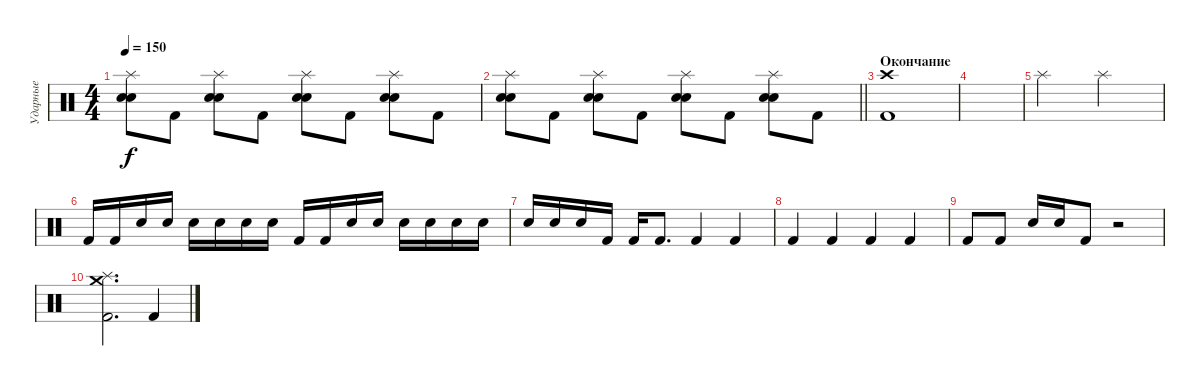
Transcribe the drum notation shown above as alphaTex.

\track ("Ударные" "Ударные") {instrument percussion}
\staff {score}
\articulation defaults
\ts (4 4)
\tempo 150
\clef neutral
\ks c
("Splash (hit)" "Electric Snare (hit)" "Snare (hit) 2").8{dy f} "Kick (hit) 2".8 ("Splash (hit)" "Electric Snare (hit)" "Snare (hit) 2").8 "Kick (hit) 2".8 ("Splash (hit)" "Electric Snare (hit)" "Snare (hit) 2").8 "Kick (hit) 2".8 ("Splash (hit)" "Electric Snare (hit)" "Snare (hit) 2").8 "Kick (hit) 2".8 |
\barLineRight lightlight
("Splash (hit)" "Electric Snare (hit)" "Snare (hit) 2").8 "Kick (hit) 2".8 ("Splash (hit)" "Electric Snare (hit)" "Snare (hit) 2").8 "Kick (hit) 2".8 ("Splash (hit)" "Electric Snare (hit)" "Snare (hit) 2").8 "Kick (hit) 2".8 ("Splash (hit)" "Electric Snare (hit)" "Snare (hit) 2").8 "Kick (hit) 2".8 |
\section ("" "Окончание")
("Crash high (hit)" "Kick (hit) 2").1 |
|
"Splash (hit)".2 "Splash (hit)".2 |
"Kick (hit) 2".16 "Kick (hit) 2".16 "Electric Snare (hit)".16 "Electric Snare (hit)".16 "Electric Snare (hit)".16 "Electric Snare (hit)".16 "Electric Snare (hit)".16 "Electric Snare (hit)".16 "Kick (hit) 2".16 "Kick (hit) 2".16 "Electric Snare (hit)".16 "Electric Snare (hit)".16 "Electric Snare (hit)".16 "Electric Snare (hit)".16 "Electric Snare (hit)".16 "Electric Snare (hit)".16 |
"Electric Snare (hit)".16 "Electric Snare (hit)".16 "Electric Snare (hit)".16 "Kick (hit) 2".16 "Kick (hit) 2".16 "Kick (hit) 2".8{d} "Kick (hit) 2".4 "Kick (hit) 2".4 |
"Kick (hit) 2".4 "Kick (hit) 2".4 "Kick (hit) 2".4 "Kick (hit) 2".4 |
"Kick (hit) 2".8 "Kick (hit) 2".8 "Electric Snare (hit)".16 "Electric Snare (hit)".16 "Kick (hit) 2".8 r.2 |
("Splash (hit)" "Crash medium (hit)" "Kick (hit) 2").2{d} "Kick (hit) 2".4
